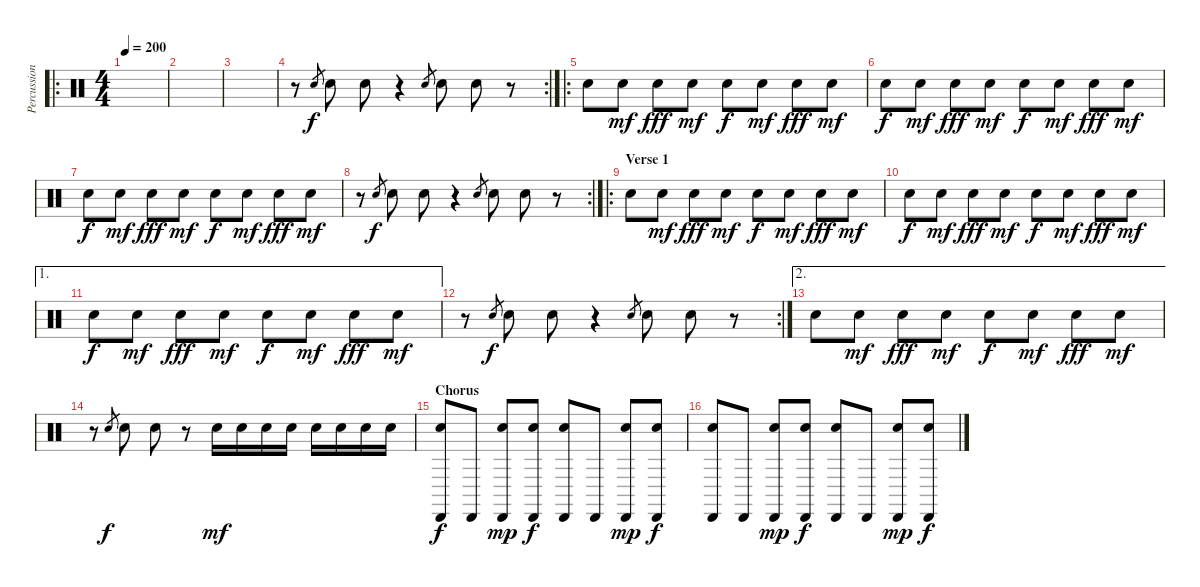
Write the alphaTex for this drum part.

\track ("Percussion" "Percussion") {instrument percussion}
\staff {score}
\articulation defaults
\ro
\ts (4 4)
\tempo 200
\clef neutral
\ks c
|
|
|
\rc 2
r.8 "Snare (hit) 2".8{gr} "Snare (hit) 2".8 "Snare (hit) 2".8 r.4 "Snare (hit) 2".8{gr} "Snare (hit) 2".8 "Snare (hit) 2".8 r.8 |
\ro "Snare (hit) 2".8 "Snare (hit) 2".8{dy mf} "Snare (hit) 2".8{dy fff} "Snare (hit) 2".8{dy mf} "Snare (hit) 2".8{dy f} "Snare (hit) 2".8{dy mf} "Snare (hit) 2".8{dy fff} "Snare (hit) 2".8{dy mf}
|
"Snare (hit) 2".8{dy f} "Snare (hit) 2".8{dy mf} "Snare (hit) 2".8{dy fff} "Snare (hit) 2".8{dy mf} "Snare (hit) 2".8{dy f} "Snare (hit) 2".8{dy mf} "Snare (hit) 2".8{dy fff} "Snare (hit) 2".8{dy mf} |
"Snare (hit) 2".8{dy f} "Snare (hit) 2".8{dy mf} "Snare (hit) 2".8{dy fff} "Snare (hit) 2".8{dy mf} "Snare (hit) 2".8{dy f} "Snare (hit) 2".8{dy mf} "Snare (hit) 2".8{dy fff} "Snare (hit) 2".8{dy mf} |
\rc 2
r.8 "Snare (hit) 2".8{gr dy f} "Snare (hit) 2".8 "Snare (hit) 2".8 r.4 "Snare (hit) 2".8{gr} "Snare (hit) 2".8 "Snare (hit) 2".8 r.8 |
\ro
\section ("" "Verse 1")
"Snare (hit) 2".8 "Snare (hit) 2".8{dy mf} "Snare (hit) 2".8{dy fff} "Snare (hit) 2".8{dy mf} "Snare (hit) 2".8{dy f} "Snare (hit) 2".8{dy mf} "Snare (hit) 2".8{dy fff} "Snare (hit) 2".8{dy mf} |
"Snare (hit) 2".8{dy f} "Snare (hit) 2".8{dy mf} "Snare (hit) 2".8{dy fff} "Snare (hit) 2".8{dy mf} "Snare (hit) 2".8{dy f} "Snare (hit) 2".8{dy mf} "Snare (hit) 2".8{dy fff} "Snare (hit) 2".8{dy mf} |
\ae 1 "Snare (hit) 2".8{dy f} "Snare (hit) 2".8{dy mf} "Snare (hit) 2".8{dy fff} "Snare (hit) 2".8{dy mf} "Snare (hit) 2".8{dy f} "Snare (hit) 2".8{dy mf} "Snare (hit) 2".8{dy fff} "Snare (hit) 2".8{dy mf}
|
\rc 2
r.8 "Snare (hit) 2".8{gr dy f} "Snare (hit) 2".8 "Snare (hit) 2".8 r.4 "Snare (hit) 2".8{gr} "Snare (hit) 2".8 "Snare (hit) 2".8 r.8 |
\ae 2 "Snare (hit) 2".8 "Snare (hit) 2".8{dy mf} "Snare (hit) 2".8{dy fff} "Snare (hit) 2".8{dy mf} "Snare (hit) 2".8{dy f} "Snare (hit) 2".8{dy mf} "Snare (hit) 2".8{dy fff} "Snare (hit) 2".8{dy mf}
|
r.8 "Snare (hit) 2".8{gr dy f} "Snare (hit) 2".8 "Snare (hit) 2".8 r.8 "Snare (hit) 2".16{dy mf} "Snare (hit) 2".16 "Snare (hit) 2".16 "Snare (hit) 2".16 "Snare (hit) 2".16 "Snare (hit) 2".16 "Snare (hit) 2".16 "Snare (hit) 2".16 |
\section ("" "Chorus")
("Cabasa (hit)" "Snare (hit) 2").8{dy f} "Cabasa (hit)".8 ("Cabasa (hit)" "Snare (hit) 2").8{dy mp} ("Cabasa (hit)" "Snare (hit) 2").8{dy f} ("Cabasa (hit)" "Snare (hit) 2").8 "Cabasa (hit)".8 ("Cabasa (hit)" "Snare (hit) 2").8{dy mp} ("Cabasa (hit)" "Snare (hit) 2").8{dy f} |
("Cabasa (hit)" "Snare (hit) 2").8 "Cabasa (hit)".8 ("Cabasa (hit)" "Snare (hit) 2").8{dy mp} ("Cabasa (hit)" "Snare (hit) 2").8{dy f} ("Cabasa (hit)" "Snare (hit) 2").8 "Cabasa (hit)".8 ("Cabasa (hit)" "Snare (hit) 2").8{dy mp} ("Cabasa (hit)" "Snare (hit) 2").8{dy f}
